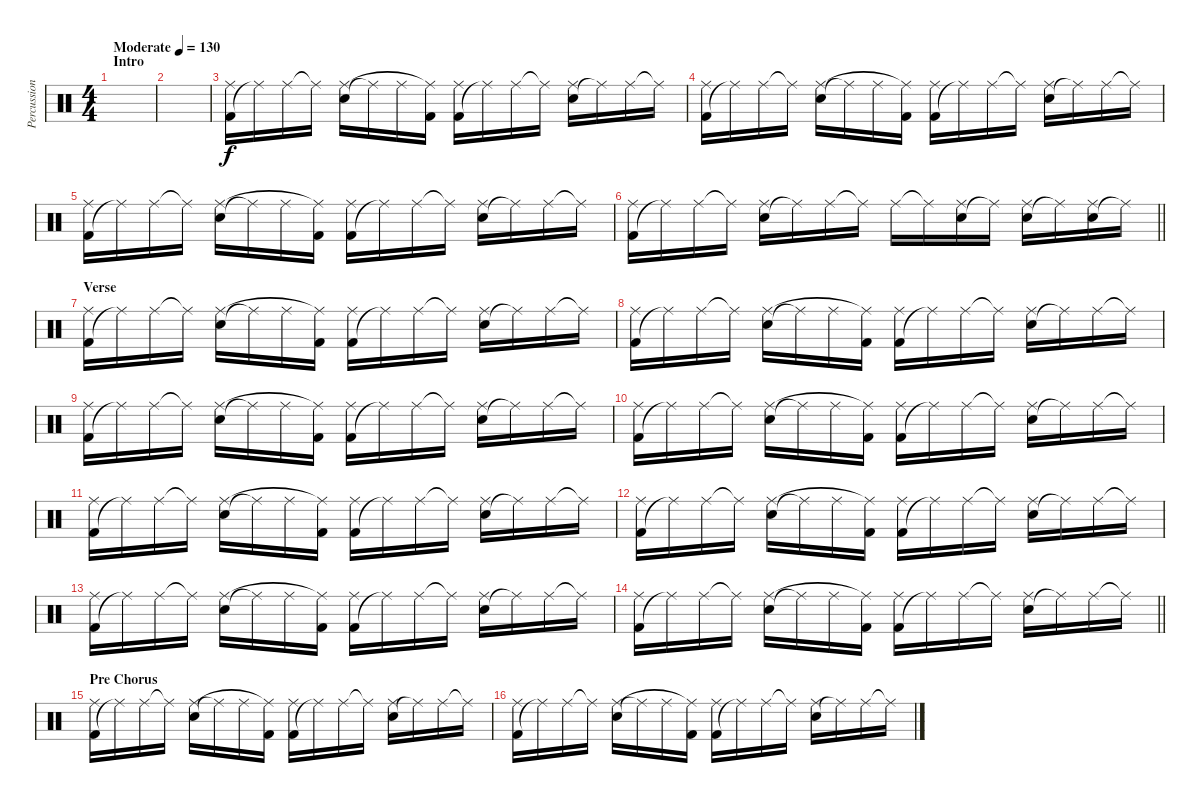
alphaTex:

\track ("Percussion" "Percussion") {instrument percussion}
\staff {score}
\articulation defaults
\ts (4 4)
\section ("" "Intro")
\tempo (130 "Moderate")
\clef neutral
\ks c
|
|
("Kick (hit) 2" "Ride (middle)").16 "Ride (middle)"{t}.16 "Ride (middle)".16 "Ride (middle)"{t}.16 ("Snare (hit) 2" "Ride (middle)").16 "Ride (middle)"{t}.16 "Ride (middle)".16 ("Kick (hit) 2" "Ride (middle)"{t}).16 ("Kick (hit) 2" "Ride (middle)").16 "Ride (middle)"{t}.16 "Ride (middle)".16 "Ride (middle)"{t}.16 ("Snare (hit) 2" "Ride (middle)").16 "Ride (middle)"{t}.16 "Ride (middle)".16 "Ride (middle)"{t}.16 |
("Kick (hit) 2" "Ride (middle)").16 "Ride (middle)"{t}.16 "Ride (middle)".16 "Ride (middle)"{t}.16 ("Snare (hit) 2" "Ride (middle)").16 "Ride (middle)"{t}.16 "Ride (middle)".16 ("Kick (hit) 2" "Ride (middle)"{t}).16 ("Kick (hit) 2" "Ride (middle)").16 "Ride (middle)"{t}.16 "Ride (middle)".16 "Ride (middle)"{t}.16 ("Snare (hit) 2" "Ride (middle)").16 "Ride (middle)"{t}.16 "Ride (middle)".16 "Ride (middle)"{t}.16 |
("Kick (hit) 2" "Ride (middle)").16 "Ride (middle)"{t}.16 "Ride (middle)".16 "Ride (middle)"{t}.16 ("Snare (hit) 2" "Ride (middle)").16 "Ride (middle)"{t}.16 "Ride (middle)".16 ("Kick (hit) 2" "Ride (middle)"{t}).16 ("Kick (hit) 2" "Ride (middle)").16 "Ride (middle)"{t}.16 "Ride (middle)".16 "Ride (middle)"{t}.16 ("Snare (hit) 2" "Ride (middle)").16 "Ride (middle)"{t}.16 "Ride (middle)".16 "Ride (middle)"{t}.16 |
\barLineRight lightlight
("Kick (hit) 2" "Ride (middle)").16 "Ride (middle)"{t}.16 "Ride (middle)".16 "Ride (middle)"{t}.16 ("Snare (hit) 2" "Ride (middle)").16 "Ride (middle)"{t}.16 "Ride (middle)".16 "Ride (middle)"{t}.16 "Ride (middle)".16 "Ride (middle)"{t}.16 ("Snare (hit) 2" "Ride (middle)").16 "Ride (middle)"{t}.16 ("Snare (hit) 2" "Ride (middle)").16 "Ride (middle)"{t}.16 ("Snare (hit) 2" "Ride (middle)").16 "Ride (middle)"{t}.16 |
\section ("" "Verse")
("Kick (hit) 2" "Ride (middle)").16 "Ride (middle)"{t}.16 "Ride (middle)".16 "Ride (middle)"{t}.16 ("Snare (hit) 2" "Ride (middle)").16 "Ride (middle)"{t}.16 "Ride (middle)".16 ("Kick (hit) 2" "Ride (middle)"{t}).16 ("Kick (hit) 2" "Ride (middle)").16 "Ride (middle)"{t}.16 "Ride (middle)".16 "Ride (middle)"{t}.16 ("Snare (hit) 2" "Ride (middle)").16 "Ride (middle)"{t}.16 "Ride (middle)".16 "Ride (middle)"{t}.16 |
("Kick (hit) 2" "Ride (middle)").16 "Ride (middle)"{t}.16 "Ride (middle)".16 "Ride (middle)"{t}.16 ("Snare (hit) 2" "Ride (middle)").16 "Ride (middle)"{t}.16 "Ride (middle)".16 ("Kick (hit) 2" "Ride (middle)"{t}).16 ("Kick (hit) 2" "Ride (middle)").16 "Ride (middle)"{t}.16 "Ride (middle)".16 "Ride (middle)"{t}.16 ("Snare (hit) 2" "Ride (middle)").16 "Ride (middle)"{t}.16 "Ride (middle)".16 "Ride (middle)"{t}.16 |
("Kick (hit) 2" "Ride (middle)").16 "Ride (middle)"{t}.16 "Ride (middle)".16 "Ride (middle)"{t}.16 ("Snare (hit) 2" "Ride (middle)").16 "Ride (middle)"{t}.16 "Ride (middle)".16 ("Kick (hit) 2" "Ride (middle)"{t}).16 ("Kick (hit) 2" "Ride (middle)").16 "Ride (middle)"{t}.16 "Ride (middle)".16 "Ride (middle)"{t}.16 ("Snare (hit) 2" "Ride (middle)").16 "Ride (middle)"{t}.16 "Ride (middle)".16 "Ride (middle)"{t}.16 |
("Kick (hit) 2" "Ride (middle)").16 "Ride (middle)"{t}.16 "Ride (middle)".16 "Ride (middle)"{t}.16 ("Snare (hit) 2" "Ride (middle)").16 "Ride (middle)"{t}.16 "Ride (middle)".16 ("Kick (hit) 2" "Ride (middle)"{t}).16 ("Kick (hit) 2" "Ride (middle)").16 "Ride (middle)"{t}.16 "Ride (middle)".16 "Ride (middle)"{t}.16 ("Snare (hit) 2" "Ride (middle)").16 "Ride (middle)"{t}.16 "Ride (middle)".16 "Ride (middle)"{t}.16 |
("Kick (hit) 2" "Ride (middle)").16 "Ride (middle)"{t}.16 "Ride (middle)".16 "Ride (middle)"{t}.16 ("Snare (hit) 2" "Ride (middle)").16 "Ride (middle)"{t}.16 "Ride (middle)".16 ("Kick (hit) 2" "Ride (middle)"{t}).16 ("Kick (hit) 2" "Ride (middle)").16 "Ride (middle)"{t}.16 "Ride (middle)".16 "Ride (middle)"{t}.16 ("Snare (hit) 2" "Ride (middle)").16 "Ride (middle)"{t}.16 "Ride (middle)".16 "Ride (middle)"{t}.16 |
("Kick (hit) 2" "Ride (middle)").16 "Ride (middle)"{t}.16 "Ride (middle)".16 "Ride (middle)"{t}.16 ("Snare (hit) 2" "Ride (middle)").16 "Ride (middle)"{t}.16 "Ride (middle)".16 ("Kick (hit) 2" "Ride (middle)"{t}).16 ("Kick (hit) 2" "Ride (middle)").16 "Ride (middle)"{t}.16 "Ride (middle)".16 "Ride (middle)"{t}.16 ("Snare (hit) 2" "Ride (middle)").16 "Ride (middle)"{t}.16 "Ride (middle)".16 "Ride (middle)"{t}.16 |
("Kick (hit) 2" "Ride (middle)").16 "Ride (middle)"{t}.16 "Ride (middle)".16 "Ride (middle)"{t}.16 ("Snare (hit) 2" "Ride (middle)").16 "Ride (middle)"{t}.16 "Ride (middle)".16 ("Kick (hit) 2" "Ride (middle)"{t}).16 ("Kick (hit) 2" "Ride (middle)").16 "Ride (middle)"{t}.16 "Ride (middle)".16 "Ride (middle)"{t}.16 ("Snare (hit) 2" "Ride (middle)").16 "Ride (middle)"{t}.16 "Ride (middle)".16 "Ride (middle)"{t}.16 |
\barLineRight lightlight
("Kick (hit) 2" "Ride (middle)").16 "Ride (middle)"{t}.16 "Ride (middle)".16 "Ride (middle)"{t}.16 ("Snare (hit) 2" "Ride (middle)").16 "Ride (middle)"{t}.16 "Ride (middle)".16 ("Kick (hit) 2" "Ride (middle)"{t}).16 ("Kick (hit) 2" "Ride (middle)").16 "Ride (middle)"{t}.16 "Ride (middle)".16 "Ride (middle)"{t}.16 ("Snare (hit) 2" "Ride (middle)").16 "Ride (middle)"{t}.16 "Ride (middle)".16 "Ride (middle)"{t}.16 |
\section ("" "Pre Chorus")
("Kick (hit) 2" "Ride (middle)").16 "Ride (middle)"{t}.16 "Ride (middle)".16 "Ride (middle)"{t}.16 ("Snare (hit) 2" "Ride (middle)").16 "Ride (middle)"{t}.16 "Ride (middle)".16 ("Kick (hit) 2" "Ride (middle)"{t}).16 ("Kick (hit) 2" "Ride (middle)").16 "Ride (middle)"{t}.16 "Ride (middle)".16 "Ride (middle)"{t}.16 ("Snare (hit) 2" "Ride (middle)").16 "Ride (middle)"{t}.16 "Ride (middle)".16 "Ride (middle)"{t}.16 |
("Kick (hit) 2" "Ride (middle)").16 "Ride (middle)"{t}.16 "Ride (middle)".16 "Ride (middle)"{t}.16 ("Snare (hit) 2" "Ride (middle)").16 "Ride (middle)"{t}.16 "Ride (middle)".16 ("Kick (hit) 2" "Ride (middle)"{t}).16 ("Kick (hit) 2" "Ride (middle)").16 "Ride (middle)"{t}.16 "Ride (middle)".16 "Ride (middle)"{t}.16 ("Snare (hit) 2" "Ride (middle)").16 "Ride (middle)"{t}.16 "Ride (middle)".16 "Ride (middle)"{t}.16
